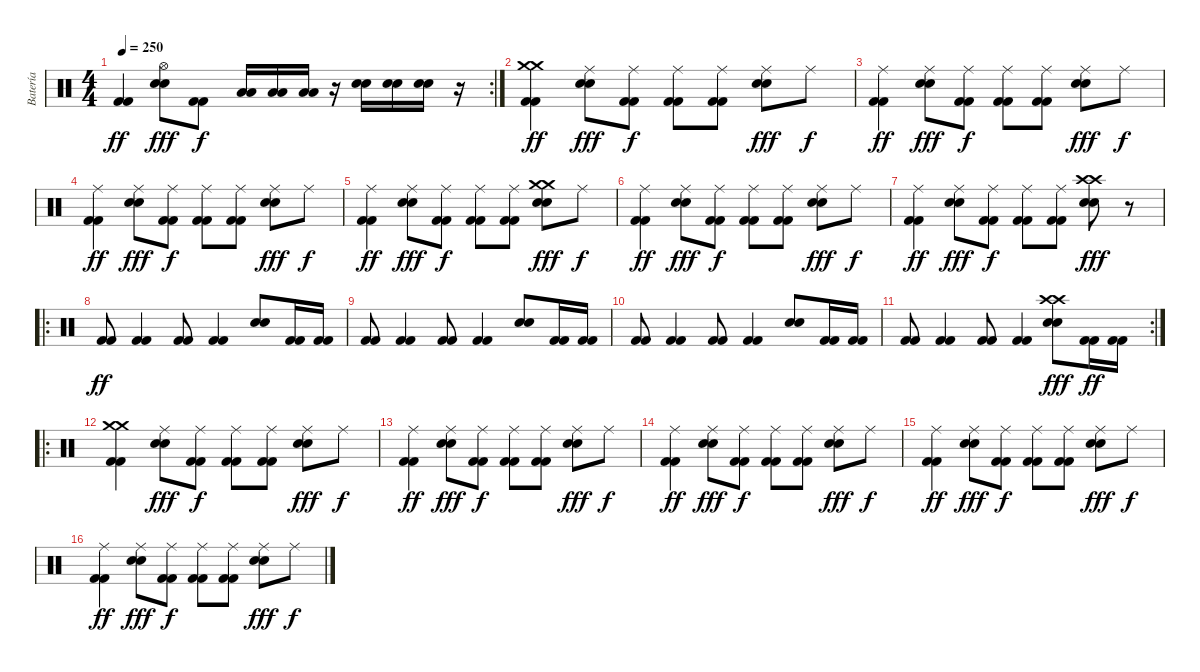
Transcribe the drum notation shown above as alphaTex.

\track ("Batería" "Batería") {instrument percussion}
\staff {score}
\articulation defaults
\rc 2
\ts (4 4)
\tempo 250
\clef neutral
\ks c
("Kick (hit) 2" "Kick (hit) 2").4{dy ff} ("Hi-Hat (open)" "Electric Snare (hit)" "Electric Snare (hit)").8{dy fff} ("Kick (hit) 2" "Kick (hit) 2").8{dy f} ("Low Tom (hit)" "Low Tom (hit)").16 ("Low Tom (hit)" "Low Tom (hit)").16 ("Low Tom (hit)" "Low Tom (hit)").16 r.16 ("Electric Snare (hit)" "Electric Snare (hit)").16 ("Electric Snare (hit)" "Electric Snare (hit)").16 ("Electric Snare (hit)" "Electric Snare (hit)").16 r.16 |
("Crash medium (hit)" "Crash medium (hit)" "Kick (hit) 2" "Kick (hit) 2").4{dy ff} ("Ride (middle)" "Electric Snare (hit)" "Electric Snare (hit)").8{dy fff} ("Ride (middle)" "Kick (hit) 2" "Kick (hit) 2").8{dy f} ("Ride (middle)" "Kick (hit) 2" "Kick (hit) 2").8 ("Ride (middle)" "Kick (hit) 2" "Kick (hit) 2").8 ("Ride (middle)" "Electric Snare (hit)" "Electric Snare (hit)").8{dy fff} "Ride (middle)".8{dy f} |
("Ride (middle)" "Kick (hit) 2" "Kick (hit) 2").4{dy ff} ("Ride (middle)" "Electric Snare (hit)" "Electric Snare (hit)").8{dy fff} ("Ride (middle)" "Kick (hit) 2" "Kick (hit) 2").8{dy f} ("Ride (middle)" "Kick (hit) 2" "Kick (hit) 2").8 ("Ride (middle)" "Kick (hit) 2" "Kick (hit) 2").8 ("Ride (middle)" "Electric Snare (hit)" "Electric Snare (hit)").8{dy fff} "Ride (middle)".8{dy f} |
("Ride (middle)" "Kick (hit) 2" "Kick (hit) 2").4{dy ff} ("Ride (middle)" "Electric Snare (hit)" "Electric Snare (hit)").8{dy fff} ("Ride (middle)" "Kick (hit) 2" "Kick (hit) 2").8{dy f} ("Ride (middle)" "Kick (hit) 2" "Kick (hit) 2").8 ("Ride (middle)" "Kick (hit) 2" "Kick (hit) 2").8 ("Ride (middle)" "Electric Snare (hit)" "Electric Snare (hit)").8{dy fff} "Ride (middle)".8{dy f} |
("Ride (middle)" "Kick (hit) 2" "Kick (hit) 2").4{dy ff} ("Ride (middle)" "Electric Snare (hit)" "Electric Snare (hit)").8{dy fff} ("Ride (middle)" "Kick (hit) 2" "Kick (hit) 2").8{dy f} ("Ride (middle)" "Kick (hit) 2" "Kick (hit) 2").8 ("Ride (middle)" "Kick (hit) 2" "Kick (hit) 2").8 ("Crash medium (hit)" "Crash medium (hit)" "Electric Snare (hit)" "Electric Snare (hit)").8{dy fff} "Ride (middle)".8{dy f} |
("Ride (middle)" "Kick (hit) 2" "Kick (hit) 2").4{dy ff} ("Ride (middle)" "Electric Snare (hit)" "Electric Snare (hit)").8{dy fff} ("Ride (middle)" "Kick (hit) 2" "Kick (hit) 2").8{dy f} ("Ride (middle)" "Kick (hit) 2" "Kick (hit) 2").8 ("Ride (middle)" "Kick (hit) 2" "Kick (hit) 2").8 ("Ride (middle)" "Electric Snare (hit)" "Electric Snare (hit)").8{dy fff} "Ride (middle)".8{dy f} |
("Ride (middle)" "Kick (hit) 2" "Kick (hit) 2").4{dy ff} ("Ride (middle)" "Electric Snare (hit)" "Electric Snare (hit)").8{dy fff} ("Ride (middle)" "Kick (hit) 2" "Kick (hit) 2").8{dy f} ("Ride (middle)" "Kick (hit) 2" "Kick (hit) 2").8 ("Ride (middle)" "Kick (hit) 2" "Kick (hit) 2").8 ("Crash high (hit)" "Crash high (hit)" "Electric Snare (hit)" "Electric Snare (hit)").8{dy fff} r.8 |
\ro
("Kick (hit) 2" "Kick (hit) 2").8{dy ff} ("Kick (hit) 2" "Kick (hit) 2").4 ("Kick (hit) 2" "Kick (hit) 2").8 ("Kick (hit) 2" "Kick (hit) 2").4 ("Electric Snare (hit)" "Electric Snare (hit)").8 ("Kick (hit) 2" "Kick (hit) 2").16 ("Kick (hit) 2" "Kick (hit) 2").16 |
("Kick (hit) 2" "Kick (hit) 2").8 ("Kick (hit) 2" "Kick (hit) 2").4 ("Kick (hit) 2" "Kick (hit) 2").8 ("Kick (hit) 2" "Kick (hit) 2").4 ("Electric Snare (hit)" "Electric Snare (hit)").8 ("Kick (hit) 2" "Kick (hit) 2").16 ("Kick (hit) 2" "Kick (hit) 2").16 |
("Kick (hit) 2" "Kick (hit) 2").8 ("Kick (hit) 2" "Kick (hit) 2").4 ("Kick (hit) 2" "Kick (hit) 2").8 ("Kick (hit) 2" "Kick (hit) 2").4 ("Electric Snare (hit)" "Electric Snare (hit)").8 ("Kick (hit) 2" "Kick (hit) 2").16 ("Kick (hit) 2" "Kick (hit) 2").16 |
\rc 2
("Kick (hit) 2" "Kick (hit) 2").8 ("Kick (hit) 2" "Kick (hit) 2").4 ("Kick (hit) 2" "Kick (hit) 2").8 ("Kick (hit) 2" "Kick (hit) 2").4 ("Crash high (hit)" "Crash high (hit)" "Electric Snare (hit)" "Electric Snare (hit)").8{dy fff} ("Kick (hit) 2" "Kick (hit) 2").16{dy ff} ("Kick (hit) 2" "Kick (hit) 2").16 |
\ro
("Crash medium (hit)" "Crash medium (hit)" "Kick (hit) 2" "Kick (hit) 2").4 ("Ride (middle)" "Electric Snare (hit)" "Electric Snare (hit)").8{dy fff} ("Ride (middle)" "Kick (hit) 2" "Kick (hit) 2").8{dy f} ("Ride (middle)" "Kick (hit) 2" "Kick (hit) 2").8 ("Ride (middle)" "Kick (hit) 2" "Kick (hit) 2").8 ("Ride (middle)" "Electric Snare (hit)" "Electric Snare (hit)").8{dy fff} "Ride (middle)".8{dy f} |
("Ride (middle)" "Kick (hit) 2" "Kick (hit) 2").4{dy ff} ("Ride (middle)" "Electric Snare (hit)" "Electric Snare (hit)").8{dy fff} ("Ride (middle)" "Kick (hit) 2" "Kick (hit) 2").8{dy f} ("Ride (middle)" "Kick (hit) 2" "Kick (hit) 2").8 ("Ride (middle)" "Kick (hit) 2" "Kick (hit) 2").8 ("Ride (middle)" "Electric Snare (hit)" "Electric Snare (hit)").8{dy fff} "Ride (middle)".8{dy f} |
("Ride (middle)" "Kick (hit) 2" "Kick (hit) 2").4{dy ff} ("Ride (middle)" "Electric Snare (hit)" "Electric Snare (hit)").8{dy fff} ("Ride (middle)" "Kick (hit) 2" "Kick (hit) 2").8{dy f} ("Ride (middle)" "Kick (hit) 2" "Kick (hit) 2").8 ("Ride (middle)" "Kick (hit) 2" "Kick (hit) 2").8 ("Ride (middle)" "Electric Snare (hit)" "Electric Snare (hit)").8{dy fff} "Ride (middle)".8{dy f} |
("Ride (middle)" "Kick (hit) 2" "Kick (hit) 2").4{dy ff} ("Ride (middle)" "Electric Snare (hit)" "Electric Snare (hit)").8{dy fff} ("Ride (middle)" "Kick (hit) 2" "Kick (hit) 2").8{dy f} ("Ride (middle)" "Kick (hit) 2" "Kick (hit) 2").8 ("Ride (middle)" "Kick (hit) 2" "Kick (hit) 2").8 ("Ride (middle)" "Electric Snare (hit)" "Electric Snare (hit)").8{dy fff} "Ride (middle)".8{dy f} |
("Ride (middle)" "Kick (hit) 2" "Kick (hit) 2").4{dy ff} ("Ride (middle)" "Electric Snare (hit)" "Electric Snare (hit)").8{dy fff} ("Ride (middle)" "Kick (hit) 2" "Kick (hit) 2").8{dy f} ("Ride (middle)" "Kick (hit) 2" "Kick (hit) 2").8 ("Ride (middle)" "Kick (hit) 2" "Kick (hit) 2").8 ("Ride (middle)" "Electric Snare (hit)" "Electric Snare (hit)").8{dy fff} "Ride (middle)".8{dy f}
